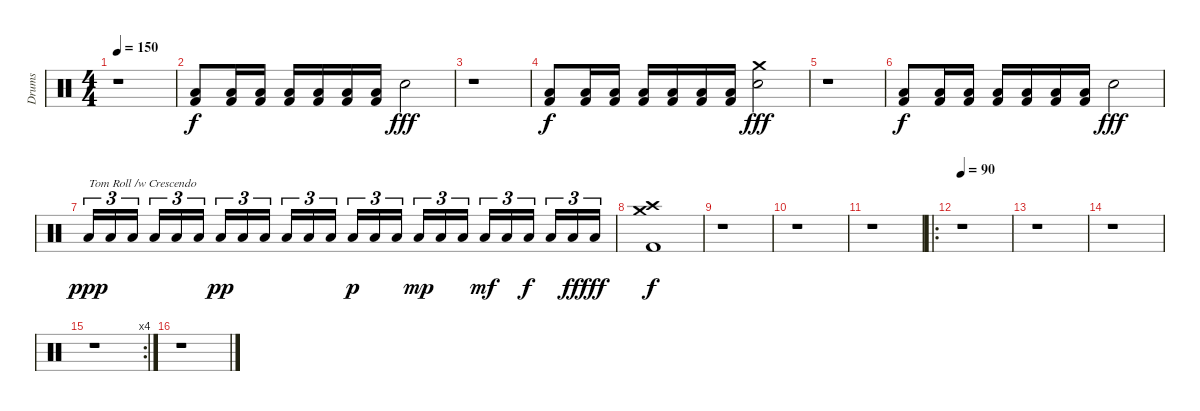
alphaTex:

\track ("Drums" "Drums") {instrument percussion}
\staff {score}
\articulation defaults
\ts (4 4)
\tempo 150
\clef neutral
\ks c
r.1{dy fff} |
("Low Floor Tom (hit)" "Kick (hit) 2").8{dy f} ("Low Floor Tom (hit)" "Kick (hit) 2").16 ("Low Floor Tom (hit)" "Kick (hit) 2").16 ("Low Floor Tom (hit)" "Kick (hit) 2").16 ("Low Floor Tom (hit)" "Kick (hit) 2").16 ("Low Floor Tom (hit)" "Kick (hit) 2").16 ("Low Floor Tom (hit)" "Kick (hit) 2").16 "Snare (hit) 2".2{dy fff} |
r.1 |
("Low Floor Tom (hit)" "Kick (hit) 2").8{dy f} ("Low Floor Tom (hit)" "Kick (hit) 2").16 ("Low Floor Tom (hit)" "Kick (hit) 2").16 ("Low Floor Tom (hit)" "Kick (hit) 2").16 ("Low Floor Tom (hit)" "Kick (hit) 2").16 ("Low Floor Tom (hit)" "Kick (hit) 2").16 ("Low Floor Tom (hit)" "Kick (hit) 2").16 ("Crash medium (hit)" "Snare (hit) 2").2{dy fff} |
r.1 |
("Low Floor Tom (hit)" "Kick (hit) 2").8{dy f} ("Low Floor Tom (hit)" "Kick (hit) 2").16 ("Low Floor Tom (hit)" "Kick (hit) 2").16 ("Low Floor Tom (hit)" "Kick (hit) 2").16 ("Low Floor Tom (hit)" "Kick (hit) 2").16 ("Low Floor Tom (hit)" "Kick (hit) 2").16 ("Low Floor Tom (hit)" "Kick (hit) 2").16 "Snare (hit) 2".2{dy fff} |
"Low Floor Tom (hit)".16{tu (3 2) txt "Tom Roll /w Crescendo" dy ppp} "Low Floor Tom (hit)".16{tu (3 2)} "Low Floor Tom (hit)".16{tu (3 2)} "Low Floor Tom (hit)".16{tu (3 2)} "Low Floor Tom (hit)".16{tu (3 2)} "Low Floor Tom (hit)".16{tu (3 2)} "Low Floor Tom (hit)".16{tu (3 2) dy pp} "Low Floor Tom (hit)".16{tu (3 2)} "Low Floor Tom (hit)".16{tu (3 2)} "Low Floor Tom (hit)".16{tu (3 2)} "Low Floor Tom (hit)".16{tu (3 2)} "Low Floor Tom (hit)".16{tu (3 2)} "Low Floor Tom (hit)".16{tu (3 2) dy p} "Low Floor Tom (hit)".16{tu (3 2)} "Low Floor Tom (hit)".16{tu (3 2)} "Low Floor Tom (hit)".16{tu (3 2) dy mp} "Low Floor Tom (hit)".16{tu (3 2)} "Low Floor Tom (hit)".16{tu (3 2)} "Low Floor Tom (hit)".16{tu (3 2) dy mf} "Low Floor Tom (hit)".16{tu (3 2)} "Low Floor Tom (hit)".16{tu (3 2) dy f} "Low Floor Tom (hit)".16{tu (3 2)} "Low Floor Tom (hit)".16{tu (3 2) dy ff} "Low Floor Tom (hit)".16{tu (3 2) dy fff} |
("Crash high (hit)" "Crash medium (hit)" "Kick (hit) 2").1{dy f} |
r.1 |
r.1 |
r.1 |
\ro
\tempo 90
r.1 |
r.1 |
r.1 |
\rc 4
r.1 |
r.1
